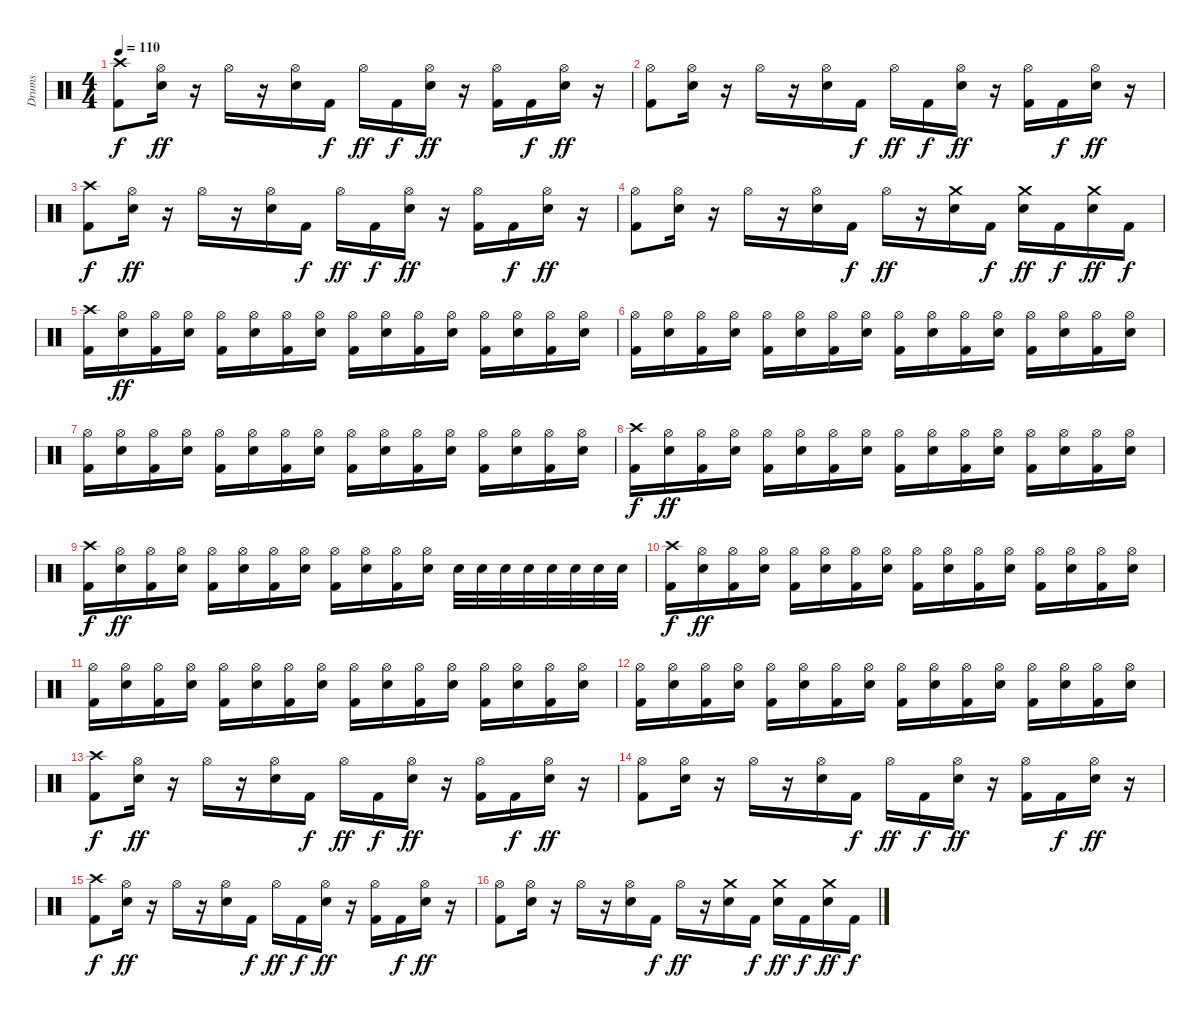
\track ("Drums" "Drums") {instrument percussion}
\staff {score}
\articulation defaults
\ts (4 4)
\tempo 110
\clef neutral
\ks c
("Crash high (hit)" "Kick (hit) 2").8{dy f} ("Hi-Hat (open)" "Snare (hit) 2").16{dy ff} r.16 "Hi-Hat (open)".16 r.16 ("Hi-Hat (open)" "Snare (hit) 2").16 "Kick (hit) 2".16{dy f} "Hi-Hat (open)".16{dy ff} "Kick (hit) 2".16{dy f} ("Hi-Hat (open)" "Snare (hit) 2").16{dy ff} r.16 ("Hi-Hat (open)" "Kick (hit) 2").16 "Kick (hit) 2".16{dy f} ("Hi-Hat (open)" "Snare (hit) 2").16{dy ff} r.16 |
("Hi-Hat (open)" "Kick (hit) 2").8 ("Hi-Hat (open)" "Snare (hit) 2").16 r.16 "Hi-Hat (open)".16 r.16 ("Hi-Hat (open)" "Snare (hit) 2").16 "Kick (hit) 2".16{dy f} "Hi-Hat (open)".16{dy ff} "Kick (hit) 2".16{dy f} ("Hi-Hat (open)" "Snare (hit) 2").16{dy ff} r.16 ("Hi-Hat (open)" "Kick (hit) 2").16 "Kick (hit) 2".16{dy f} ("Hi-Hat (open)" "Snare (hit) 2").16{dy ff} r.16 |
("Crash high (hit)" "Kick (hit) 2").8{dy f} ("Hi-Hat (open)" "Snare (hit) 2").16{dy ff} r.16 "Hi-Hat (open)".16 r.16 ("Hi-Hat (open)" "Snare (hit) 2").16 "Kick (hit) 2".16{dy f} "Hi-Hat (open)".16{dy ff} "Kick (hit) 2".16{dy f} ("Hi-Hat (open)" "Snare (hit) 2").16{dy ff} r.16 ("Hi-Hat (open)" "Kick (hit) 2").16 "Kick (hit) 2".16{dy f} ("Hi-Hat (open)" "Snare (hit) 2").16{dy ff} r.16 |
("Hi-Hat (open)" "Kick (hit) 2").8 ("Hi-Hat (open)" "Snare (hit) 2").16 r.16 "Hi-Hat (open)".16 r.16 ("Hi-Hat (open)" "Snare (hit) 2").16 "Kick (hit) 2".16{dy f} "Hi-Hat (open)".16{dy ff} r.16 ("Crash medium (hit)" "Snare (hit) 2").16 "Kick (hit) 2".16{dy f} ("Crash medium (hit)" "Snare (hit) 2").16{dy ff} "Kick (hit) 2".16{dy f} ("Crash medium (hit)" "Snare (hit) 2").16{dy ff} "Kick (hit) 2".16{dy f} |
("Crash high (hit)" "Kick (hit) 2").16 ("Hi-Hat (open)" "Snare (hit) 2").16{dy ff} ("Hi-Hat (open)" "Kick (hit) 2").16 ("Hi-Hat (open)" "Snare (hit) 2").16 ("Hi-Hat (open)" "Kick (hit) 2").16 ("Hi-Hat (open)" "Snare (hit) 2").16 ("Hi-Hat (open)" "Kick (hit) 2").16 ("Hi-Hat (open)" "Snare (hit) 2").16 ("Hi-Hat (open)" "Kick (hit) 2").16 ("Hi-Hat (open)" "Snare (hit) 2").16 ("Hi-Hat (open)" "Kick (hit) 2").16 ("Hi-Hat (open)" "Snare (hit) 2").16 ("Hi-Hat (open)" "Kick (hit) 2").16 ("Hi-Hat (open)" "Snare (hit) 2").16 ("Hi-Hat (open)" "Kick (hit) 2").16 ("Hi-Hat (open)" "Snare (hit) 2").16 |
("Hi-Hat (open)" "Kick (hit) 2").16 ("Hi-Hat (open)" "Snare (hit) 2").16 ("Hi-Hat (open)" "Kick (hit) 2").16 ("Hi-Hat (open)" "Snare (hit) 2").16 ("Hi-Hat (open)" "Kick (hit) 2").16 ("Hi-Hat (open)" "Snare (hit) 2").16 ("Hi-Hat (open)" "Kick (hit) 2").16 ("Hi-Hat (open)" "Snare (hit) 2").16 ("Hi-Hat (open)" "Kick (hit) 2").16 ("Hi-Hat (open)" "Snare (hit) 2").16 ("Hi-Hat (open)" "Kick (hit) 2").16 ("Hi-Hat (open)" "Snare (hit) 2").16 ("Hi-Hat (open)" "Kick (hit) 2").16 ("Hi-Hat (open)" "Snare (hit) 2").16 ("Hi-Hat (open)" "Kick (hit) 2").16 ("Hi-Hat (open)" "Snare (hit) 2").16 |
("Hi-Hat (open)" "Kick (hit) 2").16 ("Hi-Hat (open)" "Snare (hit) 2").16 ("Hi-Hat (open)" "Kick (hit) 2").16 ("Hi-Hat (open)" "Snare (hit) 2").16 ("Hi-Hat (open)" "Kick (hit) 2").16 ("Hi-Hat (open)" "Snare (hit) 2").16 ("Hi-Hat (open)" "Kick (hit) 2").16 ("Hi-Hat (open)" "Snare (hit) 2").16 ("Hi-Hat (open)" "Kick (hit) 2").16 ("Hi-Hat (open)" "Snare (hit) 2").16 ("Hi-Hat (open)" "Kick (hit) 2").16 ("Hi-Hat (open)" "Snare (hit) 2").16 ("Hi-Hat (open)" "Kick (hit) 2").16 ("Hi-Hat (open)" "Snare (hit) 2").16 ("Hi-Hat (open)" "Kick (hit) 2").16 ("Hi-Hat (open)" "Snare (hit) 2").16 |
("Crash high (hit)" "Kick (hit) 2").16{dy f} ("Hi-Hat (open)" "Snare (hit) 2").16{dy ff} ("Hi-Hat (open)" "Kick (hit) 2").16 ("Hi-Hat (open)" "Snare (hit) 2").16 ("Hi-Hat (open)" "Kick (hit) 2").16 ("Hi-Hat (open)" "Snare (hit) 2").16 ("Hi-Hat (open)" "Kick (hit) 2").16 ("Hi-Hat (open)" "Snare (hit) 2").16 ("Hi-Hat (open)" "Kick (hit) 2").16 ("Hi-Hat (open)" "Snare (hit) 2").16 ("Hi-Hat (open)" "Kick (hit) 2").16 ("Hi-Hat (open)" "Snare (hit) 2").16 ("Hi-Hat (open)" "Kick (hit) 2").16 ("Hi-Hat (open)" "Snare (hit) 2").16 ("Hi-Hat (open)" "Kick (hit) 2").16 ("Hi-Hat (open)" "Snare (hit) 2").16 |
("Crash high (hit)" "Kick (hit) 2").16{dy f} ("Hi-Hat (open)" "Snare (hit) 2").16{dy ff} ("Hi-Hat (open)" "Kick (hit) 2").16 ("Hi-Hat (open)" "Snare (hit) 2").16 ("Hi-Hat (open)" "Kick (hit) 2").16 ("Hi-Hat (open)" "Snare (hit) 2").16 ("Hi-Hat (open)" "Kick (hit) 2").16 ("Hi-Hat (open)" "Snare (hit) 2").16 ("Hi-Hat (open)" "Kick (hit) 2").16 ("Hi-Hat (open)" "Snare (hit) 2").16 ("Hi-Hat (open)" "Kick (hit) 2").16 ("Hi-Hat (open)" "Snare (hit) 2").16 "Snare (hit) 2".32 "Snare (hit) 2".32 "Snare (hit) 2".32 "Snare (hit) 2".32 "Snare (hit) 2".32 "Snare (hit) 2".32 "Snare (hit) 2".32 "Snare (hit) 2".32 |
("Crash high (hit)" "Kick (hit) 2").16{dy f} ("Hi-Hat (open)" "Snare (hit) 2").16{dy ff} ("Hi-Hat (open)" "Kick (hit) 2").16 ("Hi-Hat (open)" "Snare (hit) 2").16 ("Hi-Hat (open)" "Kick (hit) 2").16 ("Hi-Hat (open)" "Snare (hit) 2").16 ("Hi-Hat (open)" "Kick (hit) 2").16 ("Hi-Hat (open)" "Snare (hit) 2").16 ("Hi-Hat (open)" "Kick (hit) 2").16 ("Hi-Hat (open)" "Snare (hit) 2").16 ("Hi-Hat (open)" "Kick (hit) 2").16 ("Hi-Hat (open)" "Snare (hit) 2").16 ("Hi-Hat (open)" "Kick (hit) 2").16 ("Hi-Hat (open)" "Snare (hit) 2").16 ("Hi-Hat (open)" "Kick (hit) 2").16 ("Hi-Hat (open)" "Snare (hit) 2").16 |
("Hi-Hat (open)" "Kick (hit) 2").16 ("Hi-Hat (open)" "Snare (hit) 2").16 ("Hi-Hat (open)" "Kick (hit) 2").16 ("Hi-Hat (open)" "Snare (hit) 2").16 ("Hi-Hat (open)" "Kick (hit) 2").16 ("Hi-Hat (open)" "Snare (hit) 2").16 ("Hi-Hat (open)" "Kick (hit) 2").16 ("Hi-Hat (open)" "Snare (hit) 2").16 ("Hi-Hat (open)" "Kick (hit) 2").16 ("Hi-Hat (open)" "Snare (hit) 2").16 ("Hi-Hat (open)" "Kick (hit) 2").16 ("Hi-Hat (open)" "Snare (hit) 2").16 ("Hi-Hat (open)" "Kick (hit) 2").16 ("Hi-Hat (open)" "Snare (hit) 2").16 ("Hi-Hat (open)" "Kick (hit) 2").16 ("Hi-Hat (open)" "Snare (hit) 2").16 |
("Hi-Hat (open)" "Kick (hit) 2").16 ("Hi-Hat (open)" "Snare (hit) 2").16 ("Hi-Hat (open)" "Kick (hit) 2").16 ("Hi-Hat (open)" "Snare (hit) 2").16 ("Hi-Hat (open)" "Kick (hit) 2").16 ("Hi-Hat (open)" "Snare (hit) 2").16 ("Hi-Hat (open)" "Kick (hit) 2").16 ("Hi-Hat (open)" "Snare (hit) 2").16 ("Hi-Hat (open)" "Kick (hit) 2").16 ("Hi-Hat (open)" "Snare (hit) 2").16 ("Hi-Hat (open)" "Kick (hit) 2").16 ("Hi-Hat (open)" "Snare (hit) 2").16 ("Hi-Hat (open)" "Kick (hit) 2").16 ("Hi-Hat (open)" "Snare (hit) 2").16 ("Hi-Hat (open)" "Kick (hit) 2").16 ("Hi-Hat (open)" "Snare (hit) 2").16 |
("Crash high (hit)" "Kick (hit) 2").8{dy f} ("Hi-Hat (open)" "Snare (hit) 2").16{dy ff} r.16 "Hi-Hat (open)".16 r.16 ("Hi-Hat (open)" "Snare (hit) 2").16 "Kick (hit) 2".16{dy f} "Hi-Hat (open)".16{dy ff} "Kick (hit) 2".16{dy f} ("Hi-Hat (open)" "Snare (hit) 2").16{dy ff} r.16 ("Hi-Hat (open)" "Kick (hit) 2").16 "Kick (hit) 2".16{dy f} ("Hi-Hat (open)" "Snare (hit) 2").16{dy ff} r.16 |
("Hi-Hat (open)" "Kick (hit) 2").8 ("Hi-Hat (open)" "Snare (hit) 2").16 r.16 "Hi-Hat (open)".16 r.16 ("Hi-Hat (open)" "Snare (hit) 2").16 "Kick (hit) 2".16{dy f} "Hi-Hat (open)".16{dy ff} "Kick (hit) 2".16{dy f} ("Hi-Hat (open)" "Snare (hit) 2").16{dy ff} r.16 ("Hi-Hat (open)" "Kick (hit) 2").16 "Kick (hit) 2".16{dy f} ("Hi-Hat (open)" "Snare (hit) 2").16{dy ff} r.16 |
("Crash high (hit)" "Kick (hit) 2").8{dy f} ("Hi-Hat (open)" "Snare (hit) 2").16{dy ff} r.16 "Hi-Hat (open)".16 r.16 ("Hi-Hat (open)" "Snare (hit) 2").16 "Kick (hit) 2".16{dy f} "Hi-Hat (open)".16{dy ff} "Kick (hit) 2".16{dy f} ("Hi-Hat (open)" "Snare (hit) 2").16{dy ff} r.16 ("Hi-Hat (open)" "Kick (hit) 2").16 "Kick (hit) 2".16{dy f} ("Hi-Hat (open)" "Snare (hit) 2").16{dy ff} r.16 |
("Hi-Hat (open)" "Kick (hit) 2").8 ("Hi-Hat (open)" "Snare (hit) 2").16 r.16 "Hi-Hat (open)".16 r.16 ("Hi-Hat (open)" "Snare (hit) 2").16 "Kick (hit) 2".16{dy f} "Hi-Hat (open)".16{dy ff} r.16 ("Crash medium (hit)" "Snare (hit) 2").16 "Kick (hit) 2".16{dy f} ("Crash medium (hit)" "Snare (hit) 2").16{dy ff} "Kick (hit) 2".16{dy f} ("Crash medium (hit)" "Snare (hit) 2").16{dy ff} "Kick (hit) 2".16{dy f}
